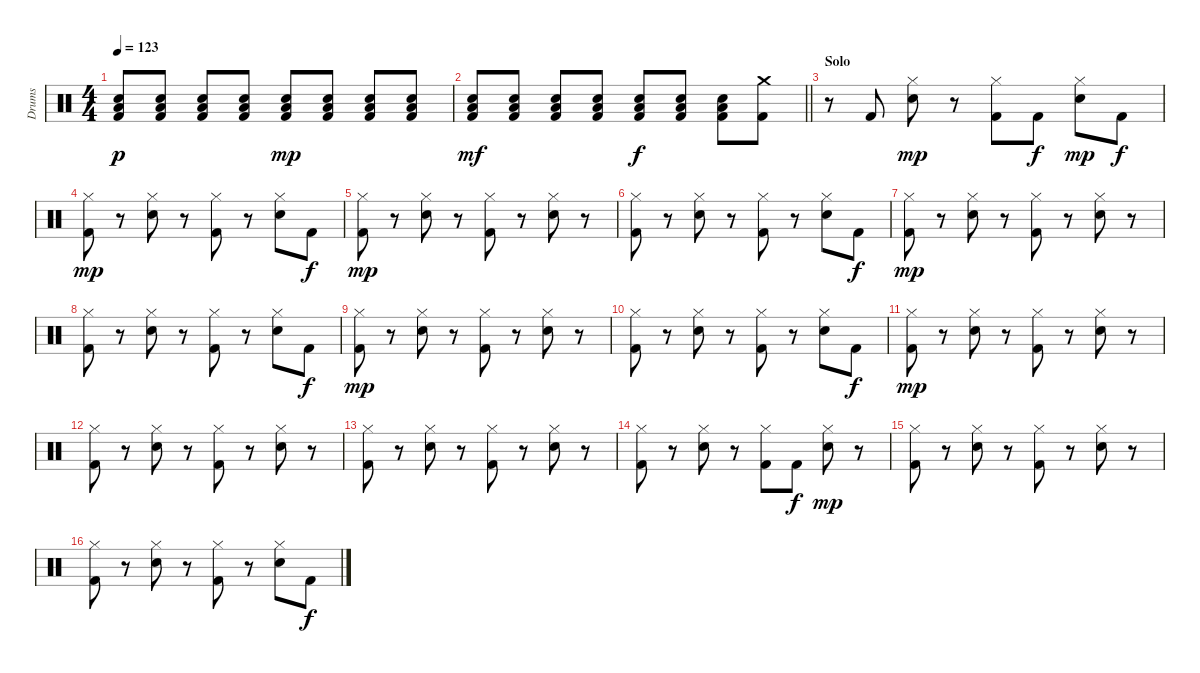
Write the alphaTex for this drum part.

\track ("Drums" "Drums") {instrument percussion}
\staff {score}
\articulation defaults
\ts (4 4)
\tempo 123
\clef neutral
\ks c
("Snare (hit) 2" "Low Tom (hit)" "Kick (hit) 2").8{dy p} ("Snare (hit) 2" "Low Tom (hit)" "Kick (hit) 2").8 ("Snare (hit) 2" "Low Tom (hit)" "Kick (hit) 2").8 ("Snare (hit) 2" "Low Tom (hit)" "Kick (hit) 2").8 ("Snare (hit) 2" "Low Tom (hit)" "Kick (hit) 2").8{dy mp} ("Snare (hit) 2" "Low Tom (hit)" "Kick (hit) 2").8 ("Snare (hit) 2" "Low Tom (hit)" "Kick (hit) 2").8 ("Snare (hit) 2" "Low Tom (hit)" "Kick (hit) 2").8 |
\barLineRight lightlight
("Snare (hit) 2" "Low Tom (hit)" "Kick (hit) 2").8{dy mf} ("Snare (hit) 2" "Low Tom (hit)" "Kick (hit) 2").8 ("Snare (hit) 2" "Low Tom (hit)" "Kick (hit) 2").8 ("Snare (hit) 2" "Low Tom (hit)" "Kick (hit) 2").8 ("Snare (hit) 2" "Low Tom (hit)" "Kick (hit) 2").8{dy f} ("Snare (hit) 2" "Low Tom (hit)" "Kick (hit) 2").8 ("Snare (hit) 2" "Low Tom (hit)" "Kick (hit) 2").8 ("Crash medium (hit)" "Kick (hit) 2").8 |
\section ("" "Solo")
r.8 "Kick (hit) 2".8 ("Hi-Hat (closed)" "Snare (hit) 2").8{dy mp} r.8 ("Hi-Hat (closed)" "Kick (hit) 2").8 "Kick (hit) 2".8{dy f} ("Hi-Hat (closed)" "Snare (hit) 2").8{dy mp} "Kick (hit) 2".8{dy f} |
("Hi-Hat (closed)" "Kick (hit) 2").8{dy mp} r.8 ("Hi-Hat (closed)" "Snare (hit) 2").8 r.8 ("Hi-Hat (closed)" "Kick (hit) 2").8 r.8 ("Hi-Hat (closed)" "Snare (hit) 2").8 "Kick (hit) 2".8{dy f} |
("Hi-Hat (closed)" "Kick (hit) 2").8{dy mp} r.8 ("Hi-Hat (closed)" "Snare (hit) 2").8 r.8 ("Hi-Hat (closed)" "Kick (hit) 2").8 r.8 ("Hi-Hat (closed)" "Snare (hit) 2").8 r.8 |
("Hi-Hat (closed)" "Kick (hit) 2").8 r.8 ("Hi-Hat (closed)" "Snare (hit) 2").8 r.8 ("Hi-Hat (closed)" "Kick (hit) 2").8 r.8 ("Hi-Hat (closed)" "Snare (hit) 2").8 "Kick (hit) 2".8{dy f} |
("Hi-Hat (closed)" "Kick (hit) 2").8{dy mp} r.8 ("Hi-Hat (closed)" "Snare (hit) 2").8 r.8 ("Hi-Hat (closed)" "Kick (hit) 2").8 r.8 ("Hi-Hat (closed)" "Snare (hit) 2").8 r.8 |
("Hi-Hat (closed)" "Kick (hit) 2").8 r.8 ("Hi-Hat (closed)" "Snare (hit) 2").8 r.8 ("Hi-Hat (closed)" "Kick (hit) 2").8 r.8 ("Hi-Hat (closed)" "Snare (hit) 2").8 "Kick (hit) 2".8{dy f} |
("Hi-Hat (closed)" "Kick (hit) 2").8{dy mp} r.8 ("Hi-Hat (closed)" "Snare (hit) 2").8 r.8 ("Hi-Hat (closed)" "Kick (hit) 2").8 r.8 ("Hi-Hat (closed)" "Snare (hit) 2").8 r.8 |
("Hi-Hat (closed)" "Kick (hit) 2").8 r.8 ("Hi-Hat (closed)" "Snare (hit) 2").8 r.8 ("Hi-Hat (closed)" "Kick (hit) 2").8 r.8 ("Hi-Hat (closed)" "Snare (hit) 2").8 "Kick (hit) 2".8{dy f} |
("Hi-Hat (closed)" "Kick (hit) 2").8{dy mp} r.8 ("Hi-Hat (closed)" "Snare (hit) 2").8 r.8 ("Hi-Hat (closed)" "Kick (hit) 2").8 r.8 ("Hi-Hat (closed)" "Snare (hit) 2").8 r.8 |
("Hi-Hat (closed)" "Kick (hit) 2").8 r.8 ("Hi-Hat (closed)" "Snare (hit) 2").8 r.8 ("Hi-Hat (closed)" "Kick (hit) 2").8 r.8 ("Hi-Hat (closed)" "Snare (hit) 2").8 r.8 |
("Hi-Hat (closed)" "Kick (hit) 2").8 r.8 ("Hi-Hat (closed)" "Snare (hit) 2").8 r.8 ("Hi-Hat (closed)" "Kick (hit) 2").8 r.8 ("Hi-Hat (closed)" "Snare (hit) 2").8 r.8 |
("Hi-Hat (closed)" "Kick (hit) 2").8 r.8 ("Hi-Hat (closed)" "Snare (hit) 2").8 r.8 ("Hi-Hat (closed)" "Kick (hit) 2").8 "Kick (hit) 2".8{dy f} ("Hi-Hat (closed)" "Snare (hit) 2").8{dy mp} r.8 |
("Hi-Hat (closed)" "Kick (hit) 2").8 r.8 ("Hi-Hat (closed)" "Snare (hit) 2").8 r.8 ("Hi-Hat (closed)" "Kick (hit) 2").8 r.8 ("Hi-Hat (closed)" "Snare (hit) 2").8 r.8 |
("Hi-Hat (closed)" "Kick (hit) 2").8 r.8 ("Hi-Hat (closed)" "Snare (hit) 2").8 r.8 ("Hi-Hat (closed)" "Kick (hit) 2").8 r.8 ("Hi-Hat (closed)" "Snare (hit) 2").8 "Kick (hit) 2".8{dy f}
